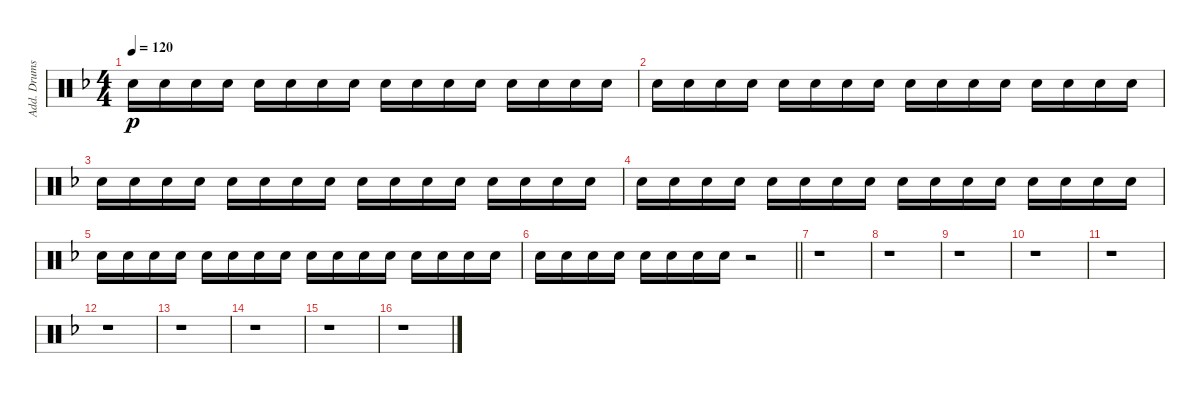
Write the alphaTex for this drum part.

\track ("Add. Drums" "Add. Drums") {instrument percussion}
\staff {score}
\articulation defaults
\ts (4 4)
\tempo 120
\clef neutral
\ks dminor "Electric Snare (hit)".16{dy p} "Electric Snare (hit)".16 "Electric Snare (hit)".16 "Electric Snare (hit)".16 "Electric Snare (hit)".16 "Electric Snare (hit)".16 "Electric Snare (hit)".16 "Electric Snare (hit)".16 "Electric Snare (hit)".16 "Electric Snare (hit)".16 "Electric Snare (hit)".16 "Electric Snare (hit)".16 "Electric Snare (hit)".16 "Electric Snare (hit)".16 "Electric Snare (hit)".16 "Electric Snare (hit)".16
|
"Electric Snare (hit)".16 "Electric Snare (hit)".16 "Electric Snare (hit)".16 "Electric Snare (hit)".16 "Electric Snare (hit)".16 "Electric Snare (hit)".16 "Electric Snare (hit)".16 "Electric Snare (hit)".16 "Electric Snare (hit)".16 "Electric Snare (hit)".16 "Electric Snare (hit)".16 "Electric Snare (hit)".16 "Electric Snare (hit)".16 "Electric Snare (hit)".16 "Electric Snare (hit)".16 "Electric Snare (hit)".16 |
"Electric Snare (hit)".16 "Electric Snare (hit)".16 "Electric Snare (hit)".16 "Electric Snare (hit)".16 "Electric Snare (hit)".16 "Electric Snare (hit)".16 "Electric Snare (hit)".16 "Electric Snare (hit)".16 "Electric Snare (hit)".16 "Electric Snare (hit)".16 "Electric Snare (hit)".16 "Electric Snare (hit)".16 "Electric Snare (hit)".16 "Electric Snare (hit)".16 "Electric Snare (hit)".16 "Electric Snare (hit)".16 |
"Electric Snare (hit)".16 "Electric Snare (hit)".16 "Electric Snare (hit)".16 "Electric Snare (hit)".16 "Electric Snare (hit)".16 "Electric Snare (hit)".16 "Electric Snare (hit)".16 "Electric Snare (hit)".16 "Electric Snare (hit)".16 "Electric Snare (hit)".16 "Electric Snare (hit)".16 "Electric Snare (hit)".16 "Electric Snare (hit)".16 "Electric Snare (hit)".16 "Electric Snare (hit)".16 "Electric Snare (hit)".16 |
"Electric Snare (hit)".16 "Electric Snare (hit)".16 "Electric Snare (hit)".16 "Electric Snare (hit)".16 "Electric Snare (hit)".16 "Electric Snare (hit)".16 "Electric Snare (hit)".16 "Electric Snare (hit)".16 "Electric Snare (hit)".16 "Electric Snare (hit)".16 "Electric Snare (hit)".16 "Electric Snare (hit)".16 "Electric Snare (hit)".16 "Electric Snare (hit)".16 "Electric Snare (hit)".16 "Electric Snare (hit)".16 |
\barLineRight lightlight "Electric Snare (hit)".16 "Electric Snare (hit)".16 "Electric Snare (hit)".16 "Electric Snare (hit)".16 "Electric Snare (hit)".16 "Electric Snare (hit)".16 "Electric Snare (hit)".16 "Electric Snare (hit)".16
r.2 |
r.1 |
r.1 |
r.1 |
r.1 |
r.1 |
r.1 |
r.1 |
r.1 |
r.1 |
r.1
